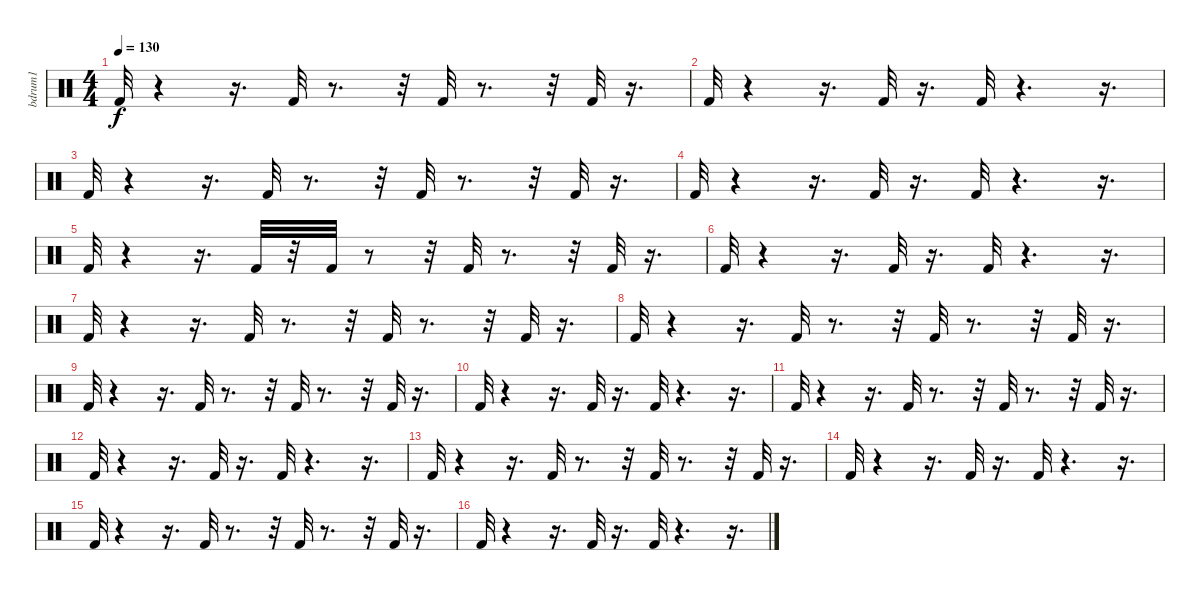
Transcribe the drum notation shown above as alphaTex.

\track ("bdrum1              " "bdrum1    ") {instrument percussion}
\staff {score}
\articulation defaults
\ts (4 4)
\tempo 130
\clef neutral
\ks c "Kick (hit) 2".32{dy f}
r.4 r.16{d} "Kick (hit) 2".32 r.8{d} r.32 "Kick (hit) 2".32 r.8{d} r.32 "Kick (hit) 2".32 r.16{d} |
"Kick (hit) 2".32 r.4 r.16{d} "Kick (hit) 2".32 r.16{d} "Kick (hit) 2".32 r.4{d} r.16{d} |
"Kick (hit) 2".32 r.4 r.16{d} "Kick (hit) 2".32 r.8{d} r.32 "Kick (hit) 2".32 r.8{d} r.32 "Kick (hit) 2".32 r.16{d} |
"Kick (hit) 2".32 r.4 r.16{d} "Kick (hit) 2".32 r.16{d} "Kick (hit) 2".32 r.4{d} r.16{d} |
"Kick (hit) 2".32 r.4 r.16{d} "Kick (hit) 2".32 r.32 "Kick (hit) 2".32 r.8 r.32 "Kick (hit) 2".32 r.8{d} r.32 "Kick (hit) 2".32 r.16{d} |
"Kick (hit) 2".32 r.4 r.16{d} "Kick (hit) 2".32 r.16{d} "Kick (hit) 2".32 r.4{d} r.16{d} |
"Kick (hit) 2".32 r.4 r.16{d} "Kick (hit) 2".32 r.8{d} r.32 "Kick (hit) 2".32 r.8{d} r.32 "Kick (hit) 2".32 r.16{d} |
"Kick (hit) 2".32 r.4 r.16{d} "Kick (hit) 2".32 r.8{d} r.32 "Kick (hit) 2".32 r.8{d} r.32 "Kick (hit) 2".32 r.16{d} |
"Kick (hit) 2".32 r.4 r.16{d} "Kick (hit) 2".32 r.8{d} r.32 "Kick (hit) 2".32 r.8{d} r.32 "Kick (hit) 2".32 r.16{d} |
"Kick (hit) 2".32 r.4 r.16{d} "Kick (hit) 2".32 r.16{d} "Kick (hit) 2".32 r.4{d} r.16{d} |
"Kick (hit) 2".32 r.4 r.16{d} "Kick (hit) 2".32 r.8{d} r.32 "Kick (hit) 2".32 r.8{d} r.32 "Kick (hit) 2".32 r.16{d} |
"Kick (hit) 2".32 r.4 r.16{d} "Kick (hit) 2".32 r.16{d} "Kick (hit) 2".32 r.4{d} r.16{d} |
"Kick (hit) 2".32 r.4 r.16{d} "Kick (hit) 2".32 r.8{d} r.32 "Kick (hit) 2".32 r.8{d} r.32 "Kick (hit) 2".32 r.16{d} |
"Kick (hit) 2".32 r.4 r.16{d} "Kick (hit) 2".32 r.16{d} "Kick (hit) 2".32 r.4{d} r.16{d} |
"Kick (hit) 2".32 r.4 r.16{d} "Kick (hit) 2".32 r.8{d} r.32 "Kick (hit) 2".32 r.8{d} r.32 "Kick (hit) 2".32 r.16{d} |
"Kick (hit) 2".32 r.4 r.16{d} "Kick (hit) 2".32 r.16{d} "Kick (hit) 2".32 r.4{d} r.16{d}
